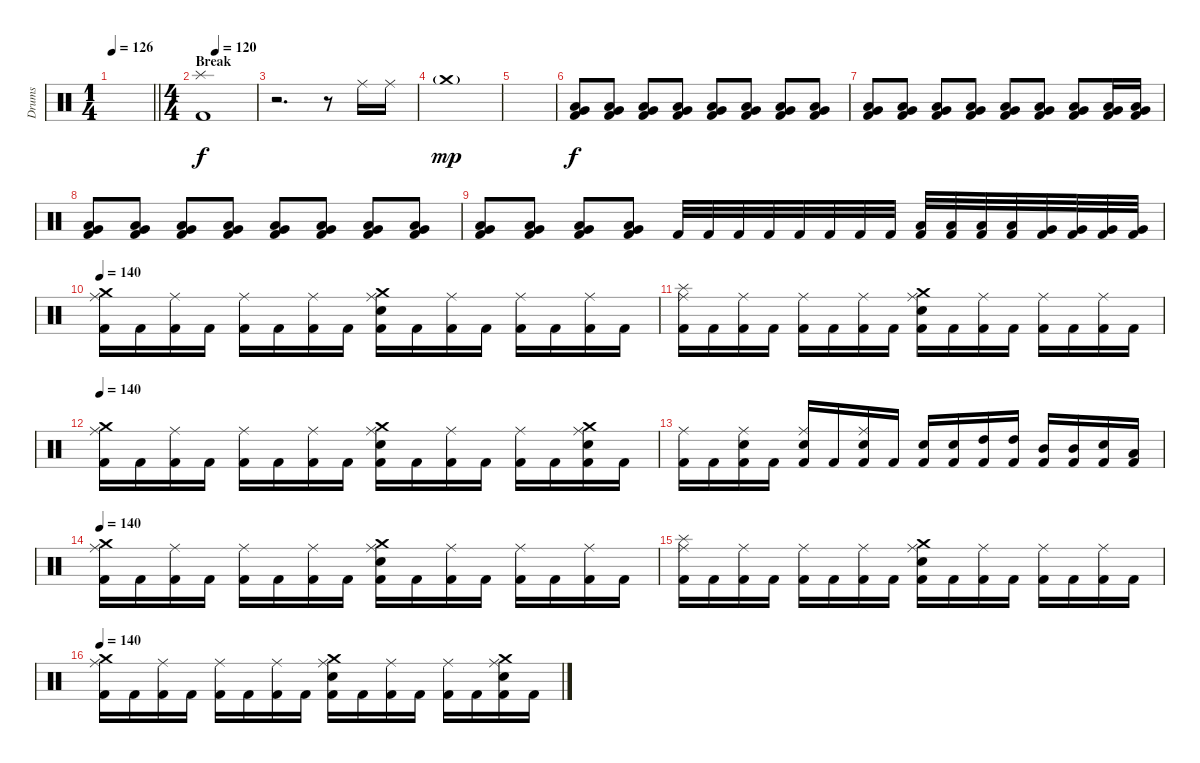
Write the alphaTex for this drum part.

\track ("Drums" "Drums") {instrument percussion}
\staff {score}
\articulation defaults
\ts (1 4)
\tempo 126
\clef neutral
\barLineRight lightlight
\ks c
|
\ts (4 4)
\section ("" "Break")
\tempo (120 0.25)
("Splash (hit)" "Kick (hit) 2").1 |
r.2{d} r.8 "Ride (middle)".16 "Ride (middle)".16 |
"Crash medium (hit)"{g}.1{dy mp} |
|
("Very Low Tom (hit)" "Low Floor Tom (hit)" "Kick (hit) 2").8{dy f} ("Very Low Tom (hit)" "Low Floor Tom (hit)" "Kick (hit) 2").8 ("Very Low Tom (hit)" "Low Floor Tom (hit)" "Kick (hit) 2").8 ("Very Low Tom (hit)" "Low Floor Tom (hit)" "Kick (hit) 2").8 ("Very Low Tom (hit)" "Low Floor Tom (hit)" "Kick (hit) 2").8 ("Very Low Tom (hit)" "Low Floor Tom (hit)" "Kick (hit) 2").8 ("Very Low Tom (hit)" "Low Floor Tom (hit)" "Kick (hit) 2").8 ("Very Low Tom (hit)" "Low Floor Tom (hit)" "Kick (hit) 2").8 |
("Very Low Tom (hit)" "Low Floor Tom (hit)" "Kick (hit) 2").8 ("Very Low Tom (hit)" "Low Floor Tom (hit)" "Kick (hit) 2").8 ("Very Low Tom (hit)" "Low Floor Tom (hit)" "Kick (hit) 2").8 ("Very Low Tom (hit)" "Low Floor Tom (hit)" "Kick (hit) 2").8 ("Very Low Tom (hit)" "Low Floor Tom (hit)" "Kick (hit) 2").8 ("Very Low Tom (hit)" "Low Floor Tom (hit)" "Kick (hit) 2").8 ("Very Low Tom (hit)" "Low Floor Tom (hit)" "Kick (hit) 2").8 ("Very Low Tom (hit)" "Low Floor Tom (hit)" "Kick (hit) 2").16 ("Very Low Tom (hit)" "Low Floor Tom (hit)" "Kick (hit) 2").16 |
("Very Low Tom (hit)" "Low Floor Tom (hit)" "Kick (hit) 2").8 ("Very Low Tom (hit)" "Low Floor Tom (hit)" "Kick (hit) 2").8 ("Very Low Tom (hit)" "Low Floor Tom (hit)" "Kick (hit) 2").8 ("Very Low Tom (hit)" "Low Floor Tom (hit)" "Kick (hit) 2").8 ("Very Low Tom (hit)" "Low Floor Tom (hit)" "Kick (hit) 2").8 ("Very Low Tom (hit)" "Low Floor Tom (hit)" "Kick (hit) 2").8 ("Very Low Tom (hit)" "Low Floor Tom (hit)" "Kick (hit) 2").8 ("Very Low Tom (hit)" "Low Floor Tom (hit)" "Kick (hit) 2").8 |
("Very Low Tom (hit)" "Low Floor Tom (hit)" "Kick (hit) 2").8 ("Very Low Tom (hit)" "Low Floor Tom (hit)" "Kick (hit) 2").8 ("Very Low Tom (hit)" "Low Floor Tom (hit)" "Kick (hit) 2").8 ("Very Low Tom (hit)" "Low Floor Tom (hit)" "Kick (hit) 2").8 "Kick (hit) 2".32 "Kick (hit) 2".32 "Kick (hit) 2".32 "Kick (hit) 2".32 "Kick (hit) 2".32 "Kick (hit) 2".32 "Kick (hit) 2".32 "Kick (hit) 2".32 ("Low Tom (hit)" "Kick (hit) 2").32 ("Low Tom (hit)" "Kick (hit) 2").32 ("Low Tom (hit)" "Kick (hit) 2").32 ("Low Tom (hit)" "Kick (hit) 2").32 ("Very Low Tom (hit)" "Kick (hit) 2").32 ("Very Low Tom (hit)" "Kick (hit) 2").32 ("Very Low Tom (hit)" "Kick (hit) 2").32 ("Very Low Tom (hit)" "Kick (hit) 2").32 |
\tempo 140
("Crash medium (hit)" "Ride (middle)" "Kick (hit) 2").16 "Kick (hit) 2".16 ("Ride (middle)" "Kick (hit) 2").16 "Kick (hit) 2".16 ("Ride (middle)" "Kick (hit) 2").16 "Kick (hit) 2".16 ("Ride (middle)" "Kick (hit) 2").16 "Kick (hit) 2".16 ("Crash medium (hit)" "Ride (middle)" "Electric Snare (hit)" "Kick (hit) 2").16 "Kick (hit) 2".16 ("Ride (middle)" "Kick (hit) 2").16 "Kick (hit) 2".16 ("Ride (middle)" "Kick (hit) 2").16 "Kick (hit) 2".16 ("Ride (middle)" "Kick (hit) 2").16 "Kick (hit) 2".16 |
("Splash (hit)" "Ride (middle)" "Kick (hit) 2").16 "Kick (hit) 2".16 ("Ride (middle)" "Kick (hit) 2").16 "Kick (hit) 2".16 ("Ride (middle)" "Kick (hit) 2").16 "Kick (hit) 2".16 ("Ride (middle)" "Kick (hit) 2").16 "Kick (hit) 2".16 ("Crash medium (hit)" "Ride (middle)" "Electric Snare (hit)" "Kick (hit) 2").16 "Kick (hit) 2".16 ("Ride (middle)" "Kick (hit) 2").16 "Kick (hit) 2".16 ("Ride (middle)" "Kick (hit) 2").16 "Kick (hit) 2".16 ("Ride (middle)" "Kick (hit) 2").16 "Kick (hit) 2".16 |
\tempo 140
("Crash medium (hit)" "Ride (middle)" "Kick (hit) 2").16 "Kick (hit) 2".16 ("Ride (middle)" "Kick (hit) 2").16 "Kick (hit) 2".16 ("Ride (middle)" "Kick (hit) 2").16 "Kick (hit) 2".16 ("Ride (middle)" "Kick (hit) 2").16 "Kick (hit) 2".16 ("Crash medium (hit)" "Ride (middle)" "Electric Snare (hit)" "Kick (hit) 2").16 "Kick (hit) 2".16 ("Ride (middle)" "Kick (hit) 2").16 "Kick (hit) 2".16 ("Ride (middle)" "Kick (hit) 2").16 "Kick (hit) 2".16 ("Crash medium (hit)" "Ride (middle)" "Electric Snare (hit)" "Kick (hit) 2").16 "Kick (hit) 2".16 |
("Ride (middle)" "Kick (hit) 2").16 "Kick (hit) 2".16 ("Ride (middle)" "Electric Snare (hit)" "Kick (hit) 2").16 "Kick (hit) 2".16 ("Ride (middle)" "Electric Snare (hit)" "Kick (hit) 2").16 "Kick (hit) 2".16 ("Ride (middle)" "Electric Snare (hit)" "Kick (hit) 2").16 "Kick (hit) 2".16 ("Electric Snare (hit)" "Kick (hit) 2").16 ("Electric Snare (hit)" "Kick (hit) 2").16 ("High Tom (hit)" "Kick (hit) 2").16 ("High Tom (hit)" "Kick (hit) 2").16 ("Mid Tom (hit)" "Kick (hit) 2").16 ("Mid Tom (hit)" "Kick (hit) 2").16 ("Electric Snare (hit)" "Kick (hit) 2").16 ("Low Tom (hit)" "Kick (hit) 2").16 |
\tempo 140
("Crash medium (hit)" "Ride (middle)" "Kick (hit) 2").16 "Kick (hit) 2".16 ("Ride (middle)" "Kick (hit) 2").16 "Kick (hit) 2".16 ("Ride (middle)" "Kick (hit) 2").16 "Kick (hit) 2".16 ("Ride (middle)" "Kick (hit) 2").16 "Kick (hit) 2".16 ("Crash medium (hit)" "Ride (middle)" "Electric Snare (hit)" "Kick (hit) 2").16 "Kick (hit) 2".16 ("Ride (middle)" "Kick (hit) 2").16 "Kick (hit) 2".16 ("Ride (middle)" "Kick (hit) 2").16 "Kick (hit) 2".16 ("Ride (middle)" "Kick (hit) 2").16 "Kick (hit) 2".16 |
("Splash (hit)" "Ride (middle)" "Kick (hit) 2").16 "Kick (hit) 2".16 ("Ride (middle)" "Kick (hit) 2").16 "Kick (hit) 2".16 ("Ride (middle)" "Kick (hit) 2").16 "Kick (hit) 2".16 ("Ride (middle)" "Kick (hit) 2").16 "Kick (hit) 2".16 ("Crash medium (hit)" "Ride (middle)" "Electric Snare (hit)" "Kick (hit) 2").16 "Kick (hit) 2".16 ("Ride (middle)" "Kick (hit) 2").16 "Kick (hit) 2".16 ("Ride (middle)" "Kick (hit) 2").16 "Kick (hit) 2".16 ("Ride (middle)" "Kick (hit) 2").16 "Kick (hit) 2".16 |
\tempo 140
("Crash medium (hit)" "Ride (middle)" "Kick (hit) 2").16 "Kick (hit) 2".16 ("Ride (middle)" "Kick (hit) 2").16 "Kick (hit) 2".16 ("Ride (middle)" "Kick (hit) 2").16 "Kick (hit) 2".16 ("Ride (middle)" "Kick (hit) 2").16 "Kick (hit) 2".16 ("Crash medium (hit)" "Ride (middle)" "Electric Snare (hit)" "Kick (hit) 2").16 "Kick (hit) 2".16 ("Ride (middle)" "Kick (hit) 2").16 "Kick (hit) 2".16 ("Ride (middle)" "Kick (hit) 2").16 "Kick (hit) 2".16 ("Crash medium (hit)" "Ride (middle)" "Electric Snare (hit)" "Kick (hit) 2").16 "Kick (hit) 2".16
